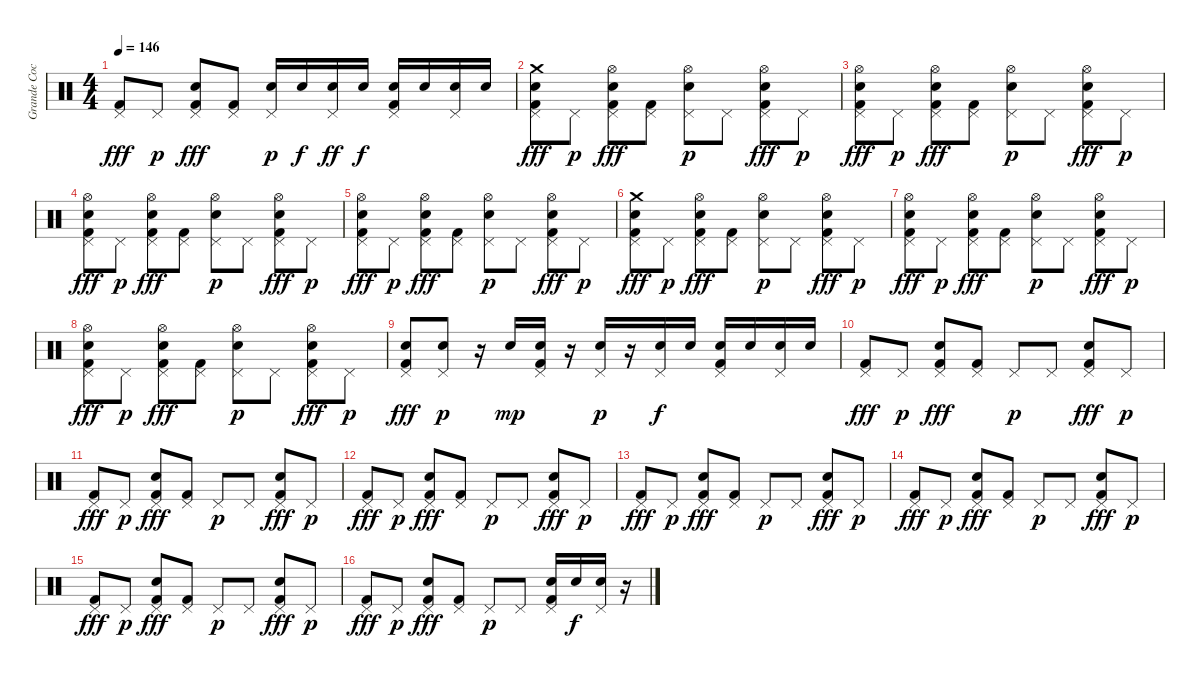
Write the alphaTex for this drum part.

\track ("Grande Coco !" "Grande Coc") {instrument percussion}
\staff {score}
\articulation defaults
\ts (4 4)
\tempo 146
\clef neutral
\ks c
("Pedal Hi-Hat (hit)" "Kick (hit) 2").8{dy fff} "Pedal Hi-Hat (hit)".8{dy p} ("Pedal Hi-Hat (hit)" "Electric Snare (hit)" "Kick (hit) 2").8{dy fff} ("Pedal Hi-Hat (hit)" "Kick (hit) 2").8 ("Pedal Hi-Hat (hit)" "Electric Snare (hit)").16{dy p} "Electric Snare (hit)".16{dy f} ("Pedal Hi-Hat (hit)" "Electric Snare (hit)").16{dy ff} "Electric Snare (hit)".16{dy f} ("Pedal Hi-Hat (hit)" "Electric Snare (hit)" "Kick (hit) 2").16 "Electric Snare (hit)".16 ("Pedal Hi-Hat (hit)" "Electric Snare (hit)").16 "Electric Snare (hit)".16 |
("Pedal Hi-Hat (hit)" "Crash medium (hit)" "Electric Snare (hit)" "Kick (hit) 2").8{dy fff} "Pedal Hi-Hat (hit)".8{dy p} ("Pedal Hi-Hat (hit)" "Hi-Hat (open)" "Electric Snare (hit)" "Kick (hit) 2").8{dy fff} ("Pedal Hi-Hat (hit)" "Kick (hit) 2").8 ("Pedal Hi-Hat (hit)" "Hi-Hat (open)" "Electric Snare (hit)").8{dy p} "Pedal Hi-Hat (hit)".8 ("Pedal Hi-Hat (hit)" "Hi-Hat (open)" "Electric Snare (hit)" "Kick (hit) 2").8{dy fff} "Pedal Hi-Hat (hit)".8{dy p} |
("Pedal Hi-Hat (hit)" "Hi-Hat (open)" "Electric Snare (hit)" "Kick (hit) 2").8{dy fff} "Pedal Hi-Hat (hit)".8{dy p} ("Pedal Hi-Hat (hit)" "Hi-Hat (open)" "Electric Snare (hit)" "Kick (hit) 2").8{dy fff} ("Pedal Hi-Hat (hit)" "Kick (hit) 2").8 ("Pedal Hi-Hat (hit)" "Hi-Hat (open)" "Electric Snare (hit)").8{dy p} "Pedal Hi-Hat (hit)".8 ("Pedal Hi-Hat (hit)" "Hi-Hat (open)" "Electric Snare (hit)" "Kick (hit) 2").8{dy fff} "Pedal Hi-Hat (hit)".8{dy p} |
("Pedal Hi-Hat (hit)" "Hi-Hat (open)" "Electric Snare (hit)" "Kick (hit) 2").8{dy fff} "Pedal Hi-Hat (hit)".8{dy p} ("Pedal Hi-Hat (hit)" "Hi-Hat (open)" "Electric Snare (hit)" "Kick (hit) 2").8{dy fff} ("Pedal Hi-Hat (hit)" "Kick (hit) 2").8 ("Pedal Hi-Hat (hit)" "Hi-Hat (open)" "Electric Snare (hit)").8{dy p} "Pedal Hi-Hat (hit)".8 ("Pedal Hi-Hat (hit)" "Hi-Hat (open)" "Electric Snare (hit)" "Kick (hit) 2").8{dy fff} "Pedal Hi-Hat (hit)".8{dy p} |
("Pedal Hi-Hat (hit)" "Hi-Hat (open)" "Electric Snare (hit)" "Kick (hit) 2").8{dy fff} "Pedal Hi-Hat (hit)".8{dy p} ("Pedal Hi-Hat (hit)" "Hi-Hat (open)" "Electric Snare (hit)" "Kick (hit) 2").8{dy fff} ("Pedal Hi-Hat (hit)" "Kick (hit) 2").8 ("Pedal Hi-Hat (hit)" "Hi-Hat (open)" "Electric Snare (hit)").8{dy p} "Pedal Hi-Hat (hit)".8 ("Pedal Hi-Hat (hit)" "Hi-Hat (open)" "Electric Snare (hit)" "Kick (hit) 2").8{dy fff} "Pedal Hi-Hat (hit)".8{dy p} |
("Pedal Hi-Hat (hit)" "Crash medium (hit)" "Electric Snare (hit)" "Kick (hit) 2").8{dy fff} "Pedal Hi-Hat (hit)".8{dy p} ("Pedal Hi-Hat (hit)" "Hi-Hat (open)" "Electric Snare (hit)" "Kick (hit) 2").8{dy fff} ("Pedal Hi-Hat (hit)" "Kick (hit) 2").8 ("Pedal Hi-Hat (hit)" "Hi-Hat (open)" "Electric Snare (hit)").8{dy p} "Pedal Hi-Hat (hit)".8 ("Pedal Hi-Hat (hit)" "Hi-Hat (open)" "Electric Snare (hit)" "Kick (hit) 2").8{dy fff} "Pedal Hi-Hat (hit)".8{dy p} |
("Pedal Hi-Hat (hit)" "Hi-Hat (open)" "Electric Snare (hit)" "Kick (hit) 2").8{dy fff} "Pedal Hi-Hat (hit)".8{dy p} ("Pedal Hi-Hat (hit)" "Hi-Hat (open)" "Electric Snare (hit)" "Kick (hit) 2").8{dy fff} ("Pedal Hi-Hat (hit)" "Kick (hit) 2").8 ("Pedal Hi-Hat (hit)" "Hi-Hat (open)" "Electric Snare (hit)").8{dy p} "Pedal Hi-Hat (hit)".8 ("Pedal Hi-Hat (hit)" "Hi-Hat (open)" "Electric Snare (hit)" "Kick (hit) 2").8{dy fff} "Pedal Hi-Hat (hit)".8{dy p} |
("Pedal Hi-Hat (hit)" "Hi-Hat (open)" "Electric Snare (hit)" "Kick (hit) 2").8{dy fff} "Pedal Hi-Hat (hit)".8{dy p} ("Pedal Hi-Hat (hit)" "Hi-Hat (open)" "Electric Snare (hit)" "Kick (hit) 2").8{dy fff} ("Pedal Hi-Hat (hit)" "Kick (hit) 2").8 ("Pedal Hi-Hat (hit)" "Hi-Hat (open)" "Electric Snare (hit)").8{dy p} "Pedal Hi-Hat (hit)".8 ("Pedal Hi-Hat (hit)" "Hi-Hat (open)" "Electric Snare (hit)" "Kick (hit) 2").8{dy fff} "Pedal Hi-Hat (hit)".8{dy p} |
("Pedal Hi-Hat (hit)" "Electric Snare (hit)" "Kick (hit) 2").8{dy fff} ("Pedal Hi-Hat (hit)" "Electric Snare (hit)").8{dy p} r.16 "Electric Snare (hit)".16{dy mp} ("Pedal Hi-Hat (hit)" "Electric Snare (hit)" "Kick (hit) 2").16 r.16 ("Pedal Hi-Hat (hit)" "Electric Snare (hit)").16{dy p} r.16 ("Pedal Hi-Hat (hit)" "Electric Snare (hit)").16{dy f} "Electric Snare (hit)".16 ("Pedal Hi-Hat (hit)" "Electric Snare (hit)" "Kick (hit) 2").16 "Electric Snare (hit)".16 ("Pedal Hi-Hat (hit)" "Electric Snare (hit)").16 "Electric Snare (hit)".16 |
("Pedal Hi-Hat (hit)" "Kick (hit) 2").8{dy fff} "Pedal Hi-Hat (hit)".8{dy p} ("Pedal Hi-Hat (hit)" "Electric Snare (hit)" "Kick (hit) 2").8{dy fff} ("Pedal Hi-Hat (hit)" "Kick (hit) 2").8 "Pedal Hi-Hat (hit)".8{dy p} "Pedal Hi-Hat (hit)".8 ("Pedal Hi-Hat (hit)" "Electric Snare (hit)" "Kick (hit) 2").8{dy fff} "Pedal Hi-Hat (hit)".8{dy p} |
("Pedal Hi-Hat (hit)" "Kick (hit) 2").8{dy fff} "Pedal Hi-Hat (hit)".8{dy p} ("Pedal Hi-Hat (hit)" "Electric Snare (hit)" "Kick (hit) 2").8{dy fff} ("Pedal Hi-Hat (hit)" "Kick (hit) 2").8 "Pedal Hi-Hat (hit)".8{dy p} "Pedal Hi-Hat (hit)".8 ("Pedal Hi-Hat (hit)" "Electric Snare (hit)" "Kick (hit) 2").8{dy fff} "Pedal Hi-Hat (hit)".8{dy p} |
("Pedal Hi-Hat (hit)" "Kick (hit) 2").8{dy fff} "Pedal Hi-Hat (hit)".8{dy p} ("Pedal Hi-Hat (hit)" "Electric Snare (hit)" "Kick (hit) 2").8{dy fff} ("Pedal Hi-Hat (hit)" "Kick (hit) 2").8 "Pedal Hi-Hat (hit)".8{dy p} "Pedal Hi-Hat (hit)".8 ("Pedal Hi-Hat (hit)" "Electric Snare (hit)" "Kick (hit) 2").8{dy fff} "Pedal Hi-Hat (hit)".8{dy p} |
("Pedal Hi-Hat (hit)" "Kick (hit) 2").8{dy fff} "Pedal Hi-Hat (hit)".8{dy p} ("Pedal Hi-Hat (hit)" "Electric Snare (hit)" "Kick (hit) 2").8{dy fff} ("Pedal Hi-Hat (hit)" "Kick (hit) 2").8 "Pedal Hi-Hat (hit)".8{dy p} "Pedal Hi-Hat (hit)".8 ("Pedal Hi-Hat (hit)" "Electric Snare (hit)" "Kick (hit) 2").8{dy fff} "Pedal Hi-Hat (hit)".8{dy p} |
("Pedal Hi-Hat (hit)" "Kick (hit) 2").8{dy fff} "Pedal Hi-Hat (hit)".8{dy p} ("Pedal Hi-Hat (hit)" "Electric Snare (hit)" "Kick (hit) 2").8{dy fff} ("Pedal Hi-Hat (hit)" "Kick (hit) 2").8 "Pedal Hi-Hat (hit)".8{dy p} "Pedal Hi-Hat (hit)".8 ("Pedal Hi-Hat (hit)" "Electric Snare (hit)" "Kick (hit) 2").8{dy fff} "Pedal Hi-Hat (hit)".8{dy p} |
("Pedal Hi-Hat (hit)" "Kick (hit) 2").8{dy fff} "Pedal Hi-Hat (hit)".8{dy p} ("Pedal Hi-Hat (hit)" "Electric Snare (hit)" "Kick (hit) 2").8{dy fff} ("Pedal Hi-Hat (hit)" "Kick (hit) 2").8 "Pedal Hi-Hat (hit)".8{dy p} "Pedal Hi-Hat (hit)".8 ("Pedal Hi-Hat (hit)" "Electric Snare (hit)" "Kick (hit) 2").8{dy fff} "Pedal Hi-Hat (hit)".8{dy p} |
("Pedal Hi-Hat (hit)" "Kick (hit) 2").8{dy fff} "Pedal Hi-Hat (hit)".8{dy p} ("Pedal Hi-Hat (hit)" "Electric Snare (hit)" "Kick (hit) 2").8{dy fff} ("Pedal Hi-Hat (hit)" "Kick (hit) 2").8 "Pedal Hi-Hat (hit)".8{dy p} "Pedal Hi-Hat (hit)".8 ("Pedal Hi-Hat (hit)" "Electric Snare (hit)" "Kick (hit) 2").16 "Electric Snare (hit)".16{dy f} ("Pedal Hi-Hat (hit)" "Electric Snare (hit)").16 r.16
